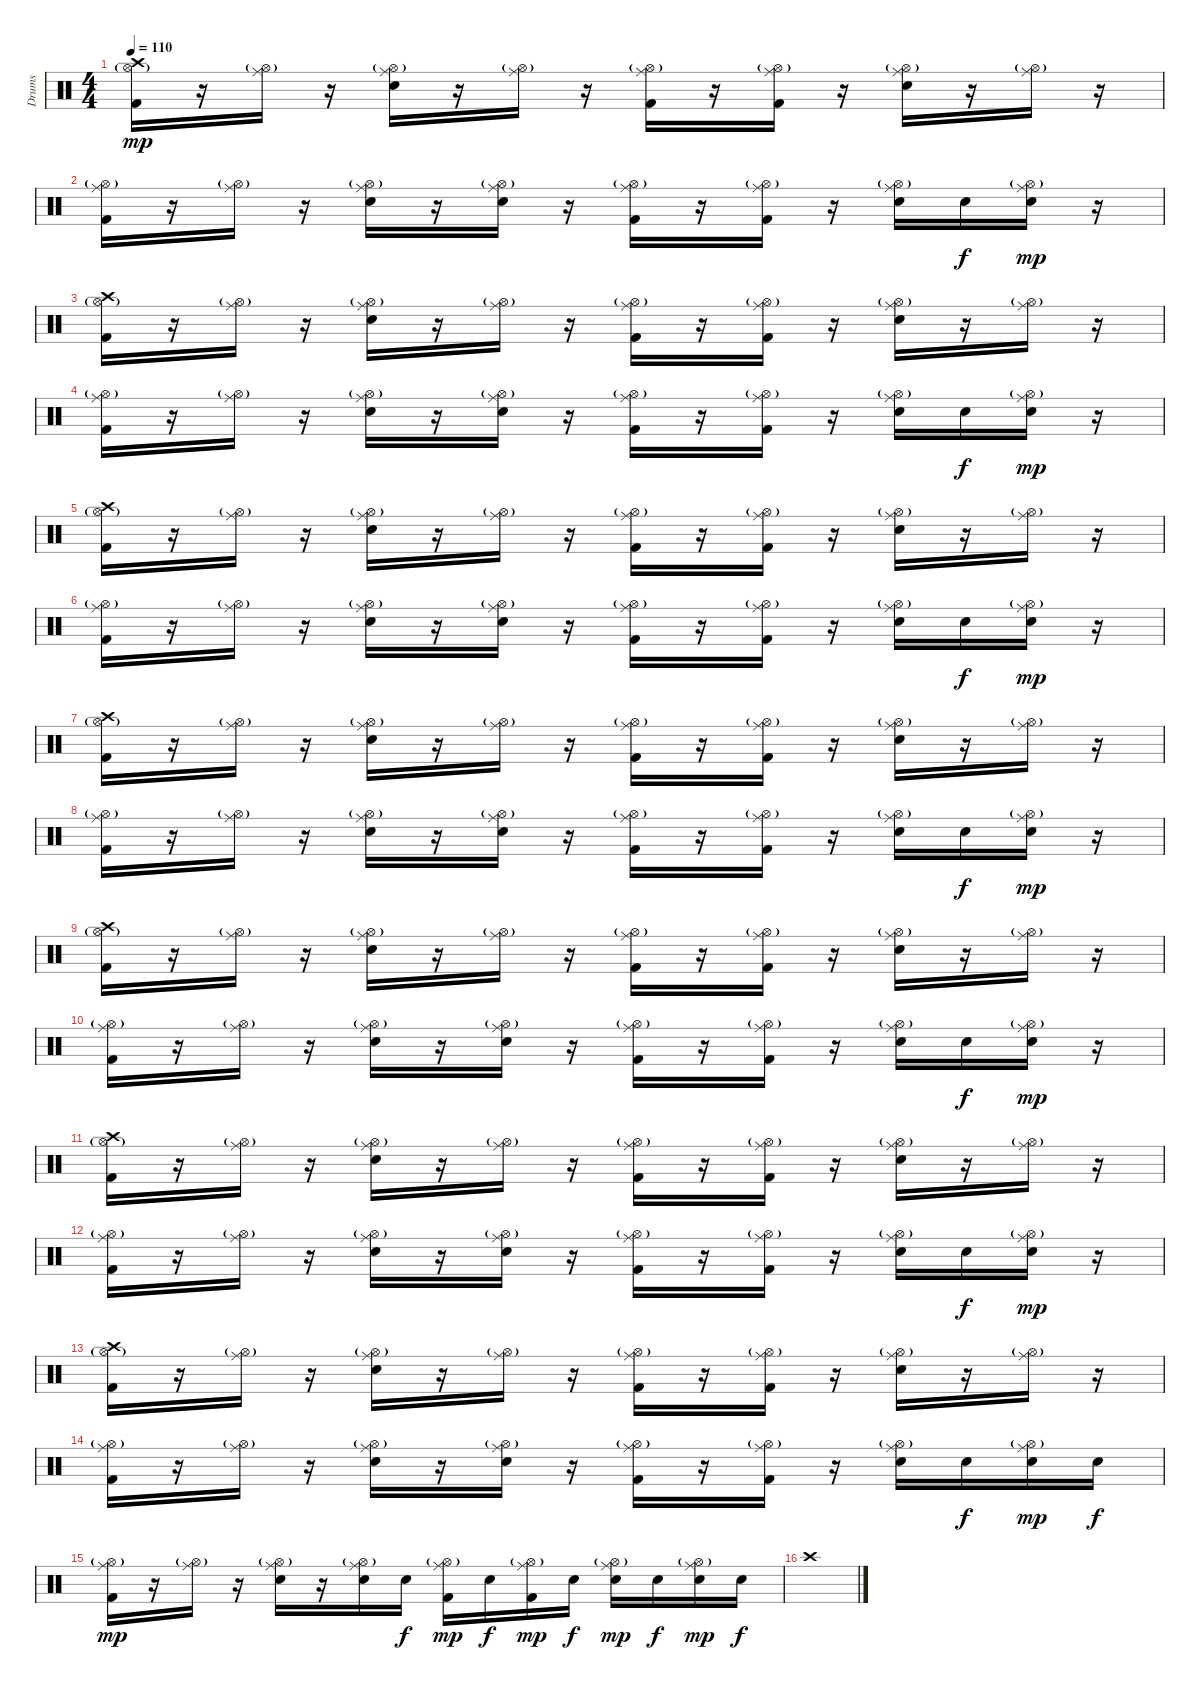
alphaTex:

\track ("Drums" "Drums") {instrument percussion}
\staff {score}
\articulation defaults
\ts (4 4)
\tempo 110
\clef neutral
\ks c
("Crash high (hit)" "Kick (hit) 2" "Hi-Hat (open)"{g}).16{dy mp} r.16 ("Ride (middle)" "Hi-Hat (open)"{g}).16 r.16 ("Ride (middle)" "Electric Snare (hit)" "Hi-Hat (open)"{g}).16 r.16 ("Ride (middle)" "Hi-Hat (open)"{g}).16 r.16 ("Ride (middle)" "Kick (hit) 2" "Hi-Hat (open)"{g}).16 r.16 ("Ride (middle)" "Kick (hit) 2" "Hi-Hat (open)"{g}).16 r.16 ("Ride (middle)" "Electric Snare (hit)" "Hi-Hat (open)"{g}).16 r.16 ("Ride (middle)" "Hi-Hat (open)"{g}).16 r.16 |
("Ride (middle)" "Kick (hit) 2" "Hi-Hat (open)"{g}).16 r.16 ("Ride (middle)" "Hi-Hat (open)"{g}).16 r.16 ("Ride (middle)" "Electric Snare (hit)" "Hi-Hat (open)"{g}).16 r.16 ("Ride (middle)" "Electric Snare (hit)" "Hi-Hat (open)"{g}).16 r.16 ("Ride (middle)" "Kick (hit) 2" "Hi-Hat (open)"{g}).16 r.16 ("Ride (middle)" "Kick (hit) 2" "Hi-Hat (open)"{g}).16 r.16 ("Ride (middle)" "Electric Snare (hit)" "Hi-Hat (open)"{g}).16 "Electric Snare (hit)".16{dy f} ("Ride (middle)" "Electric Snare (hit)" "Hi-Hat (open)"{g}).16{dy mp} r.16 |
("Crash high (hit)" "Kick (hit) 2" "Hi-Hat (open)"{g}).16 r.16 ("Ride (middle)" "Hi-Hat (open)"{g}).16 r.16 ("Ride (middle)" "Electric Snare (hit)" "Hi-Hat (open)"{g}).16 r.16 ("Ride (middle)" "Hi-Hat (open)"{g}).16 r.16 ("Ride (middle)" "Kick (hit) 2" "Hi-Hat (open)"{g}).16 r.16 ("Ride (middle)" "Kick (hit) 2" "Hi-Hat (open)"{g}).16 r.16 ("Ride (middle)" "Electric Snare (hit)" "Hi-Hat (open)"{g}).16 r.16 ("Ride (middle)" "Hi-Hat (open)"{g}).16 r.16 |
("Ride (middle)" "Kick (hit) 2" "Hi-Hat (open)"{g}).16 r.16 ("Ride (middle)" "Hi-Hat (open)"{g}).16 r.16 ("Ride (middle)" "Electric Snare (hit)" "Hi-Hat (open)"{g}).16 r.16 ("Ride (middle)" "Electric Snare (hit)" "Hi-Hat (open)"{g}).16 r.16 ("Ride (middle)" "Kick (hit) 2" "Hi-Hat (open)"{g}).16 r.16 ("Ride (middle)" "Kick (hit) 2" "Hi-Hat (open)"{g}).16 r.16 ("Ride (middle)" "Electric Snare (hit)" "Hi-Hat (open)"{g}).16 "Electric Snare (hit)".16{dy f} ("Ride (middle)" "Electric Snare (hit)" "Hi-Hat (open)"{g}).16{dy mp} r.16 |
("Crash high (hit)" "Kick (hit) 2" "Hi-Hat (open)"{g}).16 r.16 ("Ride (middle)" "Hi-Hat (open)"{g}).16 r.16 ("Ride (middle)" "Electric Snare (hit)" "Hi-Hat (open)"{g}).16 r.16 ("Ride (middle)" "Hi-Hat (open)"{g}).16 r.16 ("Ride (middle)" "Kick (hit) 2" "Hi-Hat (open)"{g}).16 r.16 ("Ride (middle)" "Kick (hit) 2" "Hi-Hat (open)"{g}).16 r.16 ("Ride (middle)" "Electric Snare (hit)" "Hi-Hat (open)"{g}).16 r.16 ("Ride (middle)" "Hi-Hat (open)"{g}).16 r.16 |
("Ride (middle)" "Kick (hit) 2" "Hi-Hat (open)"{g}).16 r.16 ("Ride (middle)" "Hi-Hat (open)"{g}).16 r.16 ("Ride (middle)" "Electric Snare (hit)" "Hi-Hat (open)"{g}).16 r.16 ("Ride (middle)" "Electric Snare (hit)" "Hi-Hat (open)"{g}).16 r.16 ("Ride (middle)" "Kick (hit) 2" "Hi-Hat (open)"{g}).16 r.16 ("Ride (middle)" "Kick (hit) 2" "Hi-Hat (open)"{g}).16 r.16 ("Ride (middle)" "Electric Snare (hit)" "Hi-Hat (open)"{g}).16 "Electric Snare (hit)".16{dy f} ("Ride (middle)" "Electric Snare (hit)" "Hi-Hat (open)"{g}).16{dy mp} r.16 |
("Crash high (hit)" "Kick (hit) 2" "Hi-Hat (open)"{g}).16 r.16 ("Ride (middle)" "Hi-Hat (open)"{g}).16 r.16 ("Ride (middle)" "Electric Snare (hit)" "Hi-Hat (open)"{g}).16 r.16 ("Ride (middle)" "Hi-Hat (open)"{g}).16 r.16 ("Ride (middle)" "Kick (hit) 2" "Hi-Hat (open)"{g}).16 r.16 ("Ride (middle)" "Kick (hit) 2" "Hi-Hat (open)"{g}).16 r.16 ("Ride (middle)" "Electric Snare (hit)" "Hi-Hat (open)"{g}).16 r.16 ("Ride (middle)" "Hi-Hat (open)"{g}).16 r.16 |
("Ride (middle)" "Kick (hit) 2" "Hi-Hat (open)"{g}).16 r.16 ("Ride (middle)" "Hi-Hat (open)"{g}).16 r.16 ("Ride (middle)" "Electric Snare (hit)" "Hi-Hat (open)"{g}).16 r.16 ("Ride (middle)" "Electric Snare (hit)" "Hi-Hat (open)"{g}).16 r.16 ("Ride (middle)" "Kick (hit) 2" "Hi-Hat (open)"{g}).16 r.16 ("Ride (middle)" "Kick (hit) 2" "Hi-Hat (open)"{g}).16 r.16 ("Ride (middle)" "Electric Snare (hit)" "Hi-Hat (open)"{g}).16 "Electric Snare (hit)".16{dy f} ("Ride (middle)" "Electric Snare (hit)" "Hi-Hat (open)"{g}).16{dy mp} r.16 |
("Crash high (hit)" "Kick (hit) 2" "Hi-Hat (open)"{g}).16 r.16 ("Ride (middle)" "Hi-Hat (open)"{g}).16 r.16 ("Ride (middle)" "Electric Snare (hit)" "Hi-Hat (open)"{g}).16 r.16 ("Ride (middle)" "Hi-Hat (open)"{g}).16 r.16 ("Ride (middle)" "Kick (hit) 2" "Hi-Hat (open)"{g}).16 r.16 ("Ride (middle)" "Kick (hit) 2" "Hi-Hat (open)"{g}).16 r.16 ("Ride (middle)" "Electric Snare (hit)" "Hi-Hat (open)"{g}).16 r.16 ("Ride (middle)" "Hi-Hat (open)"{g}).16 r.16 |
("Ride (middle)" "Kick (hit) 2" "Hi-Hat (open)"{g}).16 r.16 ("Ride (middle)" "Hi-Hat (open)"{g}).16 r.16 ("Ride (middle)" "Electric Snare (hit)" "Hi-Hat (open)"{g}).16 r.16 ("Ride (middle)" "Electric Snare (hit)" "Hi-Hat (open)"{g}).16 r.16 ("Ride (middle)" "Kick (hit) 2" "Hi-Hat (open)"{g}).16 r.16 ("Ride (middle)" "Kick (hit) 2" "Hi-Hat (open)"{g}).16 r.16 ("Ride (middle)" "Electric Snare (hit)" "Hi-Hat (open)"{g}).16 "Electric Snare (hit)".16{dy f} ("Ride (middle)" "Electric Snare (hit)" "Hi-Hat (open)"{g}).16{dy mp} r.16 |
("Crash high (hit)" "Kick (hit) 2" "Hi-Hat (open)"{g}).16 r.16 ("Ride (middle)" "Hi-Hat (open)"{g}).16 r.16 ("Ride (middle)" "Electric Snare (hit)" "Hi-Hat (open)"{g}).16 r.16 ("Ride (middle)" "Hi-Hat (open)"{g}).16 r.16 ("Ride (middle)" "Kick (hit) 2" "Hi-Hat (open)"{g}).16 r.16 ("Ride (middle)" "Kick (hit) 2" "Hi-Hat (open)"{g}).16 r.16 ("Ride (middle)" "Electric Snare (hit)" "Hi-Hat (open)"{g}).16 r.16 ("Ride (middle)" "Hi-Hat (open)"{g}).16 r.16 |
("Ride (middle)" "Kick (hit) 2" "Hi-Hat (open)"{g}).16 r.16 ("Ride (middle)" "Hi-Hat (open)"{g}).16 r.16 ("Ride (middle)" "Electric Snare (hit)" "Hi-Hat (open)"{g}).16 r.16 ("Ride (middle)" "Electric Snare (hit)" "Hi-Hat (open)"{g}).16 r.16 ("Ride (middle)" "Kick (hit) 2" "Hi-Hat (open)"{g}).16 r.16 ("Ride (middle)" "Kick (hit) 2" "Hi-Hat (open)"{g}).16 r.16 ("Ride (middle)" "Electric Snare (hit)" "Hi-Hat (open)"{g}).16 "Electric Snare (hit)".16{dy f} ("Ride (middle)" "Electric Snare (hit)" "Hi-Hat (open)"{g}).16{dy mp} r.16 |
("Crash high (hit)" "Kick (hit) 2" "Hi-Hat (open)"{g}).16 r.16 ("Ride (middle)" "Hi-Hat (open)"{g}).16 r.16 ("Ride (middle)" "Electric Snare (hit)" "Hi-Hat (open)"{g}).16 r.16 ("Ride (middle)" "Hi-Hat (open)"{g}).16 r.16 ("Ride (middle)" "Kick (hit) 2" "Hi-Hat (open)"{g}).16 r.16 ("Ride (middle)" "Kick (hit) 2" "Hi-Hat (open)"{g}).16 r.16 ("Ride (middle)" "Electric Snare (hit)" "Hi-Hat (open)"{g}).16 r.16 ("Ride (middle)" "Hi-Hat (open)"{g}).16 r.16 |
("Ride (middle)" "Kick (hit) 2" "Hi-Hat (open)"{g}).16 r.16 ("Ride (middle)" "Hi-Hat (open)"{g}).16 r.16 ("Ride (middle)" "Electric Snare (hit)" "Hi-Hat (open)"{g}).16 r.16 ("Ride (middle)" "Electric Snare (hit)" "Hi-Hat (open)"{g}).16 r.16 ("Ride (middle)" "Kick (hit) 2" "Hi-Hat (open)"{g}).16 r.16 ("Ride (middle)" "Kick (hit) 2" "Hi-Hat (open)"{g}).16 r.16 ("Ride (middle)" "Electric Snare (hit)" "Hi-Hat (open)"{g}).16 "Electric Snare (hit)".16{dy f} ("Ride (middle)" "Electric Snare (hit)" "Hi-Hat (open)"{g}).16{dy mp} "Electric Snare (hit)".16{dy f} |
("Ride (middle)" "Kick (hit) 2" "Hi-Hat (open)"{g}).16{dy mp} r.16 ("Ride (middle)" "Hi-Hat (open)"{g}).16 r.16 ("Ride (middle)" "Electric Snare (hit)" "Hi-Hat (open)"{g}).16 r.16 ("Ride (middle)" "Electric Snare (hit)" "Hi-Hat (open)"{g}).16 "Electric Snare (hit)".16{dy f} ("Ride (middle)" "Kick (hit) 2" "Hi-Hat (open)"{g}).16{dy mp} "Electric Snare (hit)".16{dy f} ("Ride (middle)" "Kick (hit) 2" "Hi-Hat (open)"{g}).16{dy mp} "Electric Snare (hit)".16{dy f} ("Ride (middle)" "Electric Snare (hit)" "Hi-Hat (open)"{g}).16{dy mp} "Electric Snare (hit)".16{dy f} ("Ride (middle)" "Electric Snare (hit)" "Hi-Hat (open)"{g}).16{dy mp} "Electric Snare (hit)".16{dy f} |
"Crash high (hit)".1
